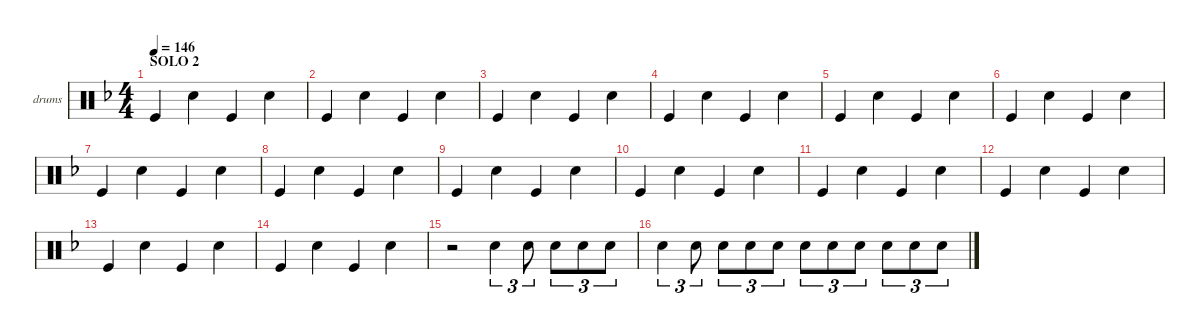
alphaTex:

\defaultSystemsLayout 4
\hideDynamics
\bracketExtendMode nobrackets
\firstSystemTrackNameOrientation horizontal
\otherSystemsTrackNameOrientation horizontal
\track ("drums" "drums") {instrument percussion}
\staff {score}
\articulation defaults
\ts (4 4)
\section ("" "SOLO 2")
\tempo 146
\clef neutral
\scale
1.06392
\ks f "Kick (hit)".4{dy mf} "Snare (hit) 2".4 "Kick (hit)".4 "Snare (hit) 2".4
|
\scale
0.978695 "Kick (hit)".4 "Snare (hit) 2".4 "Kick (hit)".4 "Snare (hit) 2".4 |
\scale
0.978695 "Kick (hit)".4 "Snare (hit) 2".4 "Kick (hit)".4 "Snare (hit) 2".4 |
\scale
0.978695 "Kick (hit)".4 "Snare (hit) 2".4 "Kick (hit)".4 "Snare (hit) 2".4 |
\scale
1.06392 "Kick (hit)".4 "Snare (hit) 2".4 "Kick (hit)".4 "Snare (hit) 2".4 |
\scale
0.978695 "Kick (hit)".4 "Snare (hit) 2".4 "Kick (hit)".4 "Snare (hit) 2".4 |
\scale
0.978695 "Kick (hit)".4 "Snare (hit) 2".4 "Kick (hit)".4 "Snare (hit) 2".4 |
\scale
0.978695 "Kick (hit)".4 "Snare (hit) 2".4 "Kick (hit)".4 "Snare (hit) 2".4 |
\scale
1.06392 "Kick (hit)".4 "Snare (hit) 2".4 "Kick (hit)".4 "Snare (hit) 2".4 |
\scale
0.978695 "Kick (hit)".4 "Snare (hit) 2".4 "Kick (hit)".4 "Snare (hit) 2".4 |
\scale
0.978695 "Kick (hit)".4 "Snare (hit) 2".4 "Kick (hit)".4 "Snare (hit) 2".4 |
\scale
0.978695 "Kick (hit)".4 "Snare (hit) 2".4 "Kick (hit)".4 "Snare (hit) 2".4 |
\scale
1.05949 "Kick (hit)".4 "Snare (hit) 2".4 "Kick (hit)".4 "Snare (hit) 2".4 |
\scale
0.974274 "Kick (hit)".4 "Snare (hit) 2".4 "Kick (hit)".4 "Snare (hit) 2".4 |
\scale
0.974274 r.2 "Snare (hit) 2".4{tu (3 2)} "Snare (hit) 2".8{tu (3 2) dy mp} "Snare (hit) 2".8{tu (3 2)} "Snare (hit) 2".8{tu (3 2) dy mf} "Snare (hit) 2".8{tu (3 2)} |
\scale
0.991958 "Snare (hit) 2".4{tu (3 2)} "Snare (hit) 2".8{tu (3 2) dy mp} "Snare (hit) 2".8{tu (3 2)} "Snare (hit) 2".8{tu (3 2) dy mf} "Snare (hit) 2".8{tu (3 2)} "Snare (hit) 2".8{tu (3 2) dy mp} "Snare (hit) 2".8{tu (3 2) dy mf} "Snare (hit) 2".8{tu (3 2)} "Snare (hit) 2".8{tu (3 2) dy mp} "Snare (hit) 2".8{tu (3 2) dy mf} "Snare (hit) 2".8{tu (3 2)}
